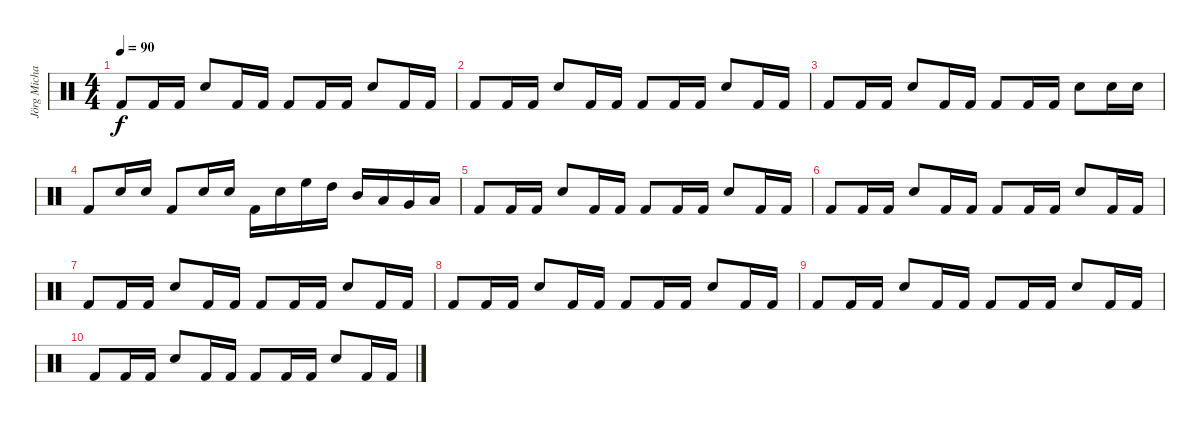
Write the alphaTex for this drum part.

\track ("Jörg Michael Drums" "Jörg Micha") {instrument percussion}
\staff {score}
\articulation defaults
\ts (4 4)
\tempo 90
\clef neutral
\ks c "Kick (hit) 2".8{dy f} "Kick (hit) 2".16 "Kick (hit) 2".16 "Electric Snare (hit)".8 "Kick (hit) 2".16 "Kick (hit) 2".16 "Kick (hit) 2".8 "Kick (hit) 2".16 "Kick (hit) 2".16 "Electric Snare (hit)".8 "Kick (hit) 2".16 "Kick (hit) 2".16
|
"Kick (hit) 2".8 "Kick (hit) 2".16 "Kick (hit) 2".16 "Electric Snare (hit)".8 "Kick (hit) 2".16 "Kick (hit) 2".16 "Kick (hit) 2".8 "Kick (hit) 2".16 "Kick (hit) 2".16 "Electric Snare (hit)".8 "Kick (hit) 2".16 "Kick (hit) 2".16 |
"Kick (hit) 2".8 "Kick (hit) 2".16 "Kick (hit) 2".16 "Electric Snare (hit)".8 "Kick (hit) 2".16 "Kick (hit) 2".16 "Kick (hit) 2".8 "Kick (hit) 2".16 "Kick (hit) 2".16 "Electric Snare (hit)".8 "Electric Snare (hit)".16 "Electric Snare (hit)".16 |
"Kick (hit) 2".8 "Electric Snare (hit)".16 "Electric Snare (hit)".16 "Kick (hit) 2".8 "Electric Snare (hit)".16 "Electric Snare (hit)".16 "Kick (hit) 2".16 "Electric Snare (hit)".16 "High Floor Tom (hit)".16 "High Tom (hit)".16 "Mid Tom (hit)".16 "Low Tom (hit)".16 "Very Low Tom (hit)".16 "Low Floor Tom (hit)".16 |
"Kick (hit) 2".8 "Kick (hit) 2".16 "Kick (hit) 2".16 "Electric Snare (hit)".8 "Kick (hit) 2".16 "Kick (hit) 2".16 "Kick (hit) 2".8 "Kick (hit) 2".16 "Kick (hit) 2".16 "Electric Snare (hit)".8 "Kick (hit) 2".16 "Kick (hit) 2".16 |
"Kick (hit) 2".8 "Kick (hit) 2".16 "Kick (hit) 2".16 "Electric Snare (hit)".8 "Kick (hit) 2".16 "Kick (hit) 2".16 "Kick (hit) 2".8 "Kick (hit) 2".16 "Kick (hit) 2".16 "Electric Snare (hit)".8 "Kick (hit) 2".16 "Kick (hit) 2".16 |
"Kick (hit) 2".8 "Kick (hit) 2".16 "Kick (hit) 2".16 "Electric Snare (hit)".8 "Kick (hit) 2".16 "Kick (hit) 2".16 "Kick (hit) 2".8 "Kick (hit) 2".16 "Kick (hit) 2".16 "Electric Snare (hit)".8 "Kick (hit) 2".16 "Kick (hit) 2".16 |
"Kick (hit) 2".8 "Kick (hit) 2".16 "Kick (hit) 2".16 "Electric Snare (hit)".8 "Kick (hit) 2".16 "Kick (hit) 2".16 "Kick (hit) 2".8 "Kick (hit) 2".16 "Kick (hit) 2".16 "Electric Snare (hit)".8 "Kick (hit) 2".16 "Kick (hit) 2".16 |
"Kick (hit) 2".8 "Kick (hit) 2".16 "Kick (hit) 2".16 "Electric Snare (hit)".8 "Kick (hit) 2".16 "Kick (hit) 2".16 "Kick (hit) 2".8 "Kick (hit) 2".16 "Kick (hit) 2".16 "Electric Snare (hit)".8 "Kick (hit) 2".16 "Kick (hit) 2".16 |
"Kick (hit) 2".8 "Kick (hit) 2".16 "Kick (hit) 2".16 "Electric Snare (hit)".8 "Kick (hit) 2".16 "Kick (hit) 2".16 "Kick (hit) 2".8 "Kick (hit) 2".16 "Kick (hit) 2".16 "Electric Snare (hit)".8 "Kick (hit) 2".16 "Kick (hit) 2".16
